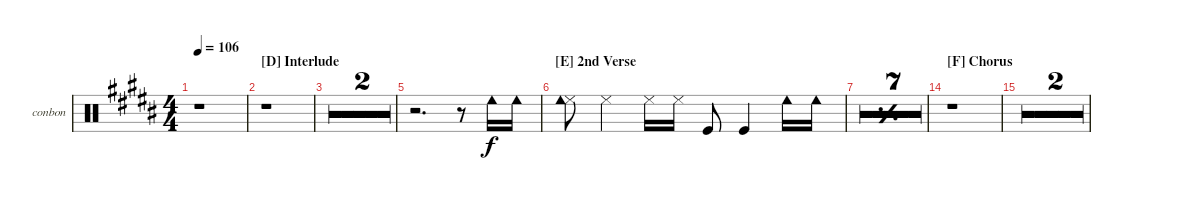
\defaultSystemsLayout 4
\bracketExtendMode groupsimilarinstruments
\firstSystemTrackNameOrientation horizontal
\otherSystemsTrackNameOrientation horizontal
\track ("Bongos N Congas" "conbon") {multiBarRest instrument percussion}
\staff {score}
\articulation defaults
\ts (4 4)
\tempo 106
\clef neutral
\ks b
r.1{dy f} |
\section ("D" "Interlude")
r.1 |
r.1 |
r.1 |
r.2{d} r.8 "Cowbell low (hit)".16 "Cowbell low (hit)".16 |
\section ("E" "2nd Verse")
("Cowbell low (tip)" "Cowbell low (hit)").8 "Cowbell low (tip)".4 "Cowbell low (tip)".16 "Cowbell low (tip)".16 "Kick (hit)".8 "Kick (hit)".4 "Cowbell low (hit)".16 "Cowbell low (hit)".16 |
\simile simple
|
|
|
|
|
|
|
\section ("F" "Chorus")
\simile none
r.1 |
r.1 |
r.1
